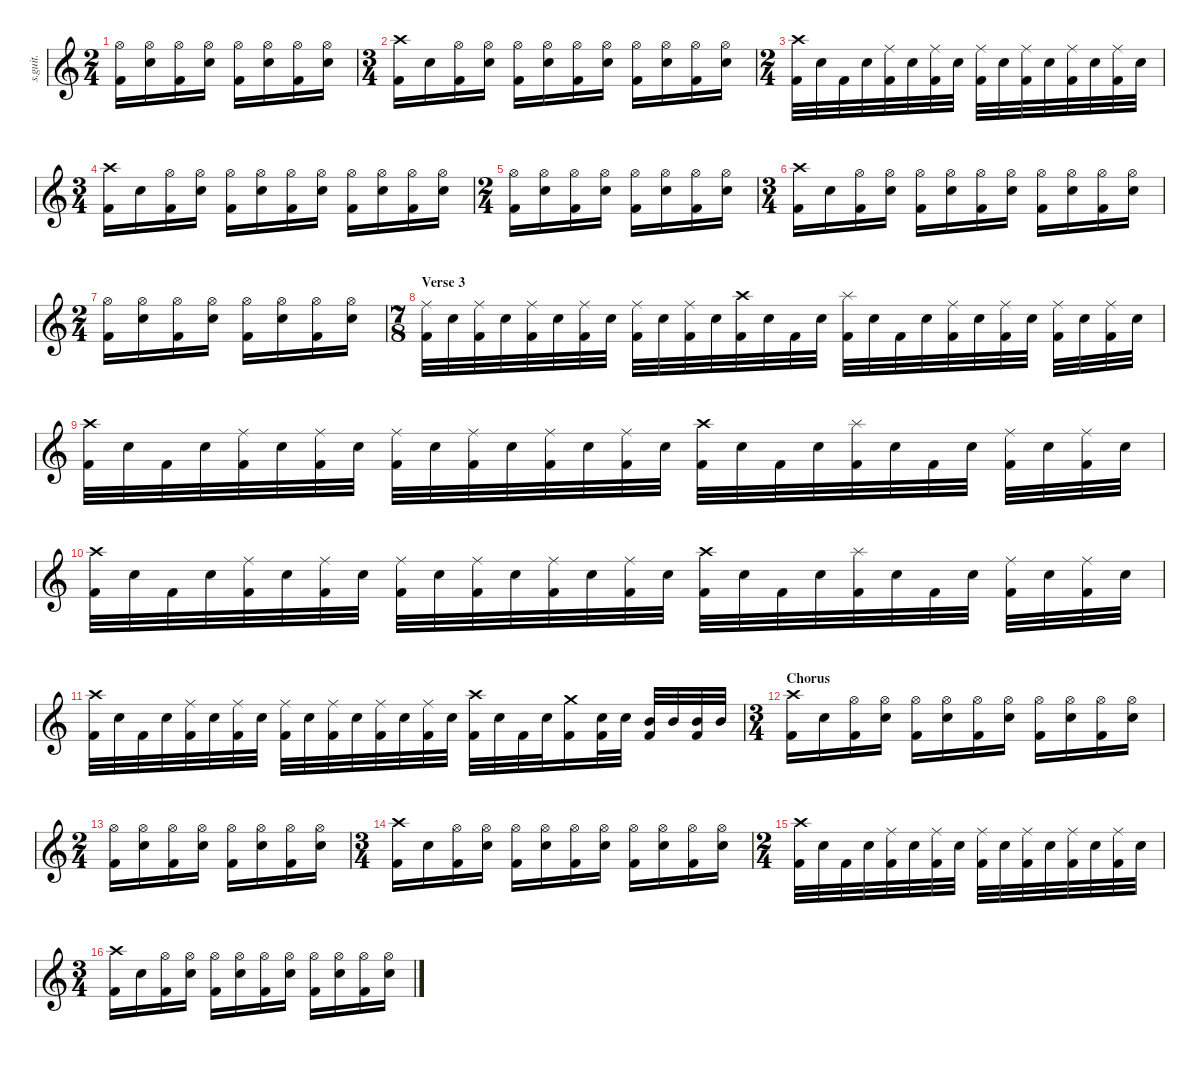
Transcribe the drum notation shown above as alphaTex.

\defaultSystemsLayout 4
\hideDynamics
\bracketExtendMode nobrackets
\track ("Percussion" "s.guit.") {instrument percussion}
\staff {score}
\articulation defaults
\ts (2 4)
\beaming (8 2 2 2 2)
\tempo (120 hide)
\clef g2
\ks c
("Hi-Hat (open)" "Kick (hit) 2").16{lyrics (0 "") lyrics (1 "") lyrics (2 "") lyrics (3 "") lyrics (4 "") dy f} ("Hi-Hat (open)" "Snare (hit) 2").16{lyrics (0 "") lyrics (1 "") lyrics (2 "") lyrics (3 "") lyrics (4 "")} ("Hi-Hat (open)" "Kick (hit) 2").16{lyrics (0 "") lyrics (1 "") lyrics (2 "") lyrics (3 "") lyrics (4 "")} ("Hi-Hat (open)" "Snare (hit) 2").16{lyrics (0 "") lyrics (1 "") lyrics (2 "") lyrics (3 "") lyrics (4 "")} ("Hi-Hat (open)" "Kick (hit) 2").16{lyrics (0 "") lyrics (1 "") lyrics (2 "") lyrics (3 "") lyrics (4 "")} ("Hi-Hat (open)" "Snare (hit) 2").16{lyrics (0 "") lyrics (1 "") lyrics (2 "") lyrics (3 "") lyrics (4 "")} ("Hi-Hat (open)" "Kick (hit) 2").16{lyrics (0 "") lyrics (1 "") lyrics (2 "") lyrics (3 "") lyrics (4 "")} ("Hi-Hat (open)" "Snare (hit) 2").16{lyrics (0 "") lyrics (1 "") lyrics (2 "") lyrics (3 "") lyrics (4 "")} |
\ts (3 4)
\beaming (8 2 2 2 2)
("Kick (hit) 2" "Crash high (hit)").16{lyrics (0 "") lyrics (1 "") lyrics (2 "") lyrics (3 "") lyrics (4 "")} "Snare (hit) 2".16{lyrics (0 "") lyrics (1 "") lyrics (2 "") lyrics (3 "") lyrics (4 "")} ("Hi-Hat (open)" "Kick (hit) 2").16{lyrics (0 "") lyrics (1 "") lyrics (2 "") lyrics (3 "") lyrics (4 "")} ("Hi-Hat (open)" "Snare (hit) 2").16{lyrics (0 "") lyrics (1 "") lyrics (2 "") lyrics (3 "") lyrics (4 "")} ("Hi-Hat (open)" "Kick (hit) 2").16{lyrics (0 "") lyrics (1 "") lyrics (2 "") lyrics (3 "") lyrics (4 "")} ("Hi-Hat (open)" "Snare (hit) 2").16{lyrics (0 "") lyrics (1 "") lyrics (2 "") lyrics (3 "") lyrics (4 "")} ("Hi-Hat (open)" "Kick (hit) 2").16{lyrics (0 "") lyrics (1 "") lyrics (2 "") lyrics (3 "") lyrics (4 "")} ("Hi-Hat (open)" "Snare (hit) 2").16{lyrics (0 "") lyrics (1 "") lyrics (2 "") lyrics (3 "") lyrics (4 "")} ("Hi-Hat (open)" "Kick (hit) 2").16{lyrics (0 "") lyrics (1 "") lyrics (2 "") lyrics (3 "") lyrics (4 "")} ("Hi-Hat (open)" "Snare (hit) 2").16{lyrics (0 "") lyrics (1 "") lyrics (2 "") lyrics (3 "") lyrics (4 "")} ("Hi-Hat (open)" "Kick (hit) 2").16{lyrics (0 "") lyrics (1 "") lyrics (2 "") lyrics (3 "") lyrics (4 "")} ("Hi-Hat (open)" "Snare (hit) 2").16{lyrics (0 "") lyrics (1 "") lyrics (2 "") lyrics (3 "") lyrics (4 "")} |
\ts (2 4)
\beaming (8 2 2 2 2)
("Kick (hit) 2" "Crash high (hit)").32{lyrics (0 "") lyrics (1 "") lyrics (2 "") lyrics (3 "") lyrics (4 "")} "Snare (hit) 2".32{lyrics (0 "") lyrics (1 "") lyrics (2 "") lyrics (3 "") lyrics (4 "")} "Kick (hit) 2".32{lyrics (0 "") lyrics (1 "") lyrics (2 "") lyrics (3 "") lyrics (4 "")} "Snare (hit) 2".32{lyrics (0 "") lyrics (1 "") lyrics (2 "") lyrics (3 "") lyrics (4 "")} ("Ride (middle)" "Kick (hit) 2").32{lyrics (0 "") lyrics (1 "") lyrics (2 "") lyrics (3 "") lyrics (4 "")} "Snare (hit) 2".32{lyrics (0 "") lyrics (1 "") lyrics (2 "") lyrics (3 "") lyrics (4 "")} ("Ride (middle)" "Kick (hit) 2").32{lyrics (0 "") lyrics (1 "") lyrics (2 "") lyrics (3 "") lyrics (4 "")} "Snare (hit) 2".32{lyrics (0 "") lyrics (1 "") lyrics (2 "") lyrics (3 "") lyrics (4 "")} ("Ride (middle)" "Kick (hit) 2").32{lyrics (0 "") lyrics (1 "") lyrics (2 "") lyrics (3 "") lyrics (4 "")} "Snare (hit) 2".32{lyrics (0 "") lyrics (1 "") lyrics (2 "") lyrics (3 "") lyrics (4 "")} ("Ride (middle)" "Kick (hit) 2").32{lyrics (0 "") lyrics (1 "") lyrics (2 "") lyrics (3 "") lyrics (4 "")} "Snare (hit) 2".32{lyrics (0 "") lyrics (1 "") lyrics (2 "") lyrics (3 "") lyrics (4 "")} ("Ride (middle)" "Kick (hit) 2").32{lyrics (0 "") lyrics (1 "") lyrics (2 "") lyrics (3 "") lyrics (4 "")} "Snare (hit) 2".32{lyrics (0 "") lyrics (1 "") lyrics (2 "") lyrics (3 "") lyrics (4 "")} ("Ride (middle)" "Kick (hit) 2").32{lyrics (0 "") lyrics (1 "") lyrics (2 "") lyrics (3 "") lyrics (4 "")} "Snare (hit) 2".32{lyrics (0 "") lyrics (1 "") lyrics (2 "") lyrics (3 "") lyrics (4 "")} |
\ts (3 4)
\beaming (8 2 2 2 2)
("Kick (hit) 2" "Crash high (hit)").16{lyrics (0 "") lyrics (1 "") lyrics (2 "") lyrics (3 "") lyrics (4 "")} "Snare (hit) 2".16{lyrics (0 "") lyrics (1 "") lyrics (2 "") lyrics (3 "") lyrics (4 "")} ("Hi-Hat (open)" "Kick (hit) 2").16{lyrics (0 "") lyrics (1 "") lyrics (2 "") lyrics (3 "") lyrics (4 "")} ("Hi-Hat (open)" "Snare (hit) 2").16{lyrics (0 "") lyrics (1 "") lyrics (2 "") lyrics (3 "") lyrics (4 "")} ("Hi-Hat (open)" "Kick (hit) 2").16{lyrics (0 "") lyrics (1 "") lyrics (2 "") lyrics (3 "") lyrics (4 "")} ("Hi-Hat (open)" "Snare (hit) 2").16{lyrics (0 "") lyrics (1 "") lyrics (2 "") lyrics (3 "") lyrics (4 "")} ("Hi-Hat (open)" "Kick (hit) 2").16{lyrics (0 "") lyrics (1 "") lyrics (2 "") lyrics (3 "") lyrics (4 "")} ("Hi-Hat (open)" "Snare (hit) 2").16{lyrics (0 "") lyrics (1 "") lyrics (2 "") lyrics (3 "") lyrics (4 "")} ("Hi-Hat (open)" "Kick (hit) 2").16{lyrics (0 "") lyrics (1 "") lyrics (2 "") lyrics (3 "") lyrics (4 "")} ("Hi-Hat (open)" "Snare (hit) 2").16{lyrics (0 "") lyrics (1 "") lyrics (2 "") lyrics (3 "") lyrics (4 "")} ("Hi-Hat (open)" "Kick (hit) 2").16{lyrics (0 "") lyrics (1 "") lyrics (2 "") lyrics (3 "") lyrics (4 "")} ("Hi-Hat (open)" "Snare (hit) 2").16{lyrics (0 "") lyrics (1 "") lyrics (2 "") lyrics (3 "") lyrics (4 "")} |
\ts (2 4)
\beaming (8 2 2 2 2)
("Hi-Hat (open)" "Kick (hit) 2").16{lyrics (0 "") lyrics (1 "") lyrics (2 "") lyrics (3 "") lyrics (4 "")} ("Hi-Hat (open)" "Snare (hit) 2").16{lyrics (0 "") lyrics (1 "") lyrics (2 "") lyrics (3 "") lyrics (4 "")} ("Hi-Hat (open)" "Kick (hit) 2").16{lyrics (0 "") lyrics (1 "") lyrics (2 "") lyrics (3 "") lyrics (4 "")} ("Hi-Hat (open)" "Snare (hit) 2").16{lyrics (0 "") lyrics (1 "") lyrics (2 "") lyrics (3 "") lyrics (4 "")} ("Hi-Hat (open)" "Kick (hit) 2").16{lyrics (0 "") lyrics (1 "") lyrics (2 "") lyrics (3 "") lyrics (4 "")} ("Hi-Hat (open)" "Snare (hit) 2").16{lyrics (0 "") lyrics (1 "") lyrics (2 "") lyrics (3 "") lyrics (4 "")} ("Hi-Hat (open)" "Kick (hit) 2").16{lyrics (0 "") lyrics (1 "") lyrics (2 "") lyrics (3 "") lyrics (4 "")} ("Hi-Hat (open)" "Snare (hit) 2").16{lyrics (0 "") lyrics (1 "") lyrics (2 "") lyrics (3 "") lyrics (4 "")} |
\ts (3 4)
\beaming (8 2 2 2 2)
("Kick (hit) 2" "Crash high (hit)").16{lyrics (0 "") lyrics (1 "") lyrics (2 "") lyrics (3 "") lyrics (4 "")} "Snare (hit) 2".16{lyrics (0 "") lyrics (1 "") lyrics (2 "") lyrics (3 "") lyrics (4 "")} ("Hi-Hat (open)" "Kick (hit) 2").16{lyrics (0 "") lyrics (1 "") lyrics (2 "") lyrics (3 "") lyrics (4 "")} ("Hi-Hat (open)" "Snare (hit) 2").16{lyrics (0 "") lyrics (1 "") lyrics (2 "") lyrics (3 "") lyrics (4 "")} ("Hi-Hat (open)" "Kick (hit) 2").16{lyrics (0 "") lyrics (1 "") lyrics (2 "") lyrics (3 "") lyrics (4 "")} ("Hi-Hat (open)" "Snare (hit) 2").16{lyrics (0 "") lyrics (1 "") lyrics (2 "") lyrics (3 "") lyrics (4 "")} ("Hi-Hat (open)" "Kick (hit) 2").16{lyrics (0 "") lyrics (1 "") lyrics (2 "") lyrics (3 "") lyrics (4 "")} ("Hi-Hat (open)" "Snare (hit) 2").16{lyrics (0 "") lyrics (1 "") lyrics (2 "") lyrics (3 "") lyrics (4 "")} ("Hi-Hat (open)" "Kick (hit) 2").16{lyrics (0 "") lyrics (1 "") lyrics (2 "") lyrics (3 "") lyrics (4 "")} ("Hi-Hat (open)" "Snare (hit) 2").16{lyrics (0 "") lyrics (1 "") lyrics (2 "") lyrics (3 "") lyrics (4 "")} ("Hi-Hat (open)" "Kick (hit) 2").16{lyrics (0 "") lyrics (1 "") lyrics (2 "") lyrics (3 "") lyrics (4 "")} ("Hi-Hat (open)" "Snare (hit) 2").16{lyrics (0 "") lyrics (1 "") lyrics (2 "") lyrics (3 "") lyrics (4 "")} |
\ts (2 4)
\beaming (8 2 2 2 2)
("Hi-Hat (open)" "Kick (hit) 2").16{lyrics (0 "") lyrics (1 "") lyrics (2 "") lyrics (3 "") lyrics (4 "")} ("Hi-Hat (open)" "Snare (hit) 2").16{lyrics (0 "") lyrics (1 "") lyrics (2 "") lyrics (3 "") lyrics (4 "")} ("Hi-Hat (open)" "Kick (hit) 2").16{lyrics (0 "") lyrics (1 "") lyrics (2 "") lyrics (3 "") lyrics (4 "")} ("Hi-Hat (open)" "Snare (hit) 2").16{lyrics (0 "") lyrics (1 "") lyrics (2 "") lyrics (3 "") lyrics (4 "")} ("Hi-Hat (open)" "Kick (hit) 2").16{lyrics (0 "") lyrics (1 "") lyrics (2 "") lyrics (3 "") lyrics (4 "")} ("Hi-Hat (open)" "Snare (hit) 2").16{lyrics (0 "") lyrics (1 "") lyrics (2 "") lyrics (3 "") lyrics (4 "")} ("Hi-Hat (open)" "Kick (hit) 2").16{lyrics (0 "") lyrics (1 "") lyrics (2 "") lyrics (3 "") lyrics (4 "")} ("Hi-Hat (open)" "Snare (hit) 2").16{lyrics (0 "") lyrics (1 "") lyrics (2 "") lyrics (3 "") lyrics (4 "")} |
\ts (7 8)
\beaming (8 2 2 2 2)
\section ("" "Verse 3")
("Ride (middle)" "Kick (hit) 2").32{lyrics (0 "") lyrics (1 "") lyrics (2 "") lyrics (3 "") lyrics (4 "")} "Snare (hit) 2".32{lyrics (0 "") lyrics (1 "") lyrics (2 "") lyrics (3 "") lyrics (4 "")} ("Ride (middle)" "Kick (hit) 2").32{lyrics (0 "") lyrics (1 "") lyrics (2 "") lyrics (3 "") lyrics (4 "")} "Snare (hit) 2".32{lyrics (0 "") lyrics (1 "") lyrics (2 "") lyrics (3 "") lyrics (4 "")} ("Ride (middle)" "Kick (hit) 2").32{lyrics (0 "") lyrics (1 "") lyrics (2 "") lyrics (3 "") lyrics (4 "")} "Snare (hit) 2".32{lyrics (0 "") lyrics (1 "") lyrics (2 "") lyrics (3 "") lyrics (4 "")} ("Ride (middle)" "Kick (hit) 2").32{lyrics (0 "") lyrics (1 "") lyrics (2 "") lyrics (3 "") lyrics (4 "")} "Snare (hit) 2".32{lyrics (0 "") lyrics (1 "") lyrics (2 "") lyrics (3 "") lyrics (4 "")} ("Ride (middle)" "Kick (hit) 2").32{lyrics (0 "") lyrics (1 "") lyrics (2 "") lyrics (3 "") lyrics (4 "")} "Snare (hit) 2".32{lyrics (0 "") lyrics (1 "") lyrics (2 "") lyrics (3 "") lyrics (4 "")} ("Ride (middle)" "Kick (hit) 2").32{lyrics (0 "") lyrics (1 "") lyrics (2 "") lyrics (3 "") lyrics (4 "")} "Snare (hit) 2".32{lyrics (0 "") lyrics (1 "") lyrics (2 "") lyrics (3 "") lyrics (4 "")} ("Kick (hit) 2" "Crash high (hit)").32{lyrics (0 "") lyrics (1 "") lyrics (2 "") lyrics (3 "") lyrics (4 "")} "Snare (hit) 2".32{lyrics (0 "") lyrics (1 "") lyrics (2 "") lyrics (3 "") lyrics (4 "")} "Kick (hit) 2".32{lyrics (0 "") lyrics (1 "") lyrics (2 "") lyrics (3 "") lyrics (4 "")} "Snare (hit) 2".32{lyrics (0 "") lyrics (1 "") lyrics (2 "") lyrics (3 "") lyrics (4 "")} ("Kick (hit) 2" "Splash (hit)").32{lyrics (0 "") lyrics (1 "") lyrics (2 "") lyrics (3 "") lyrics (4 "")} "Snare (hit) 2".32{lyrics (0 "") lyrics (1 "") lyrics (2 "") lyrics (3 "") lyrics (4 "")} "Kick (hit) 2".32{lyrics (0 "") lyrics (1 "") lyrics (2 "") lyrics (3 "") lyrics (4 "")} "Snare (hit) 2".32{lyrics (0 "") lyrics (1 "") lyrics (2 "") lyrics (3 "") lyrics (4 "")} ("Ride (middle)" "Kick (hit) 2").32{lyrics (0 "") lyrics (1 "") lyrics (2 "") lyrics (3 "") lyrics (4 "")} "Snare (hit) 2".32{lyrics (0 "") lyrics (1 "") lyrics (2 "") lyrics (3 "") lyrics (4 "")} ("Kick (hit) 2" "Ride (middle)").32{lyrics (0 "") lyrics (1 "") lyrics (2 "") lyrics (3 "") lyrics (4 "")} "Snare (hit) 2".32{lyrics (0 "") lyrics (1 "") lyrics (2 "") lyrics (3 "") lyrics (4 "")} ("Ride (middle)" "Kick (hit) 2").32{lyrics (0 "") lyrics (1 "") lyrics (2 "") lyrics (3 "") lyrics (4 "")} "Snare (hit) 2".32{lyrics (0 "") lyrics (1 "") lyrics (2 "") lyrics (3 "") lyrics (4 "")} ("Kick (hit) 2" "Ride (middle)").32{lyrics (0 "") lyrics (1 "") lyrics (2 "") lyrics (3 "") lyrics (4 "")} "Snare (hit) 2".32{lyrics (0 "") lyrics (1 "") lyrics (2 "") lyrics (3 "") lyrics (4 "")} |
("Kick (hit) 2" "Crash high (hit)").32{lyrics (0 "") lyrics (1 "") lyrics (2 "") lyrics (3 "") lyrics (4 "")} "Snare (hit) 2".32{lyrics (0 "") lyrics (1 "") lyrics (2 "") lyrics (3 "") lyrics (4 "")} "Kick (hit) 2".32{lyrics (0 "") lyrics (1 "") lyrics (2 "") lyrics (3 "") lyrics (4 "")} "Snare (hit) 2".32{lyrics (0 "") lyrics (1 "") lyrics (2 "") lyrics (3 "") lyrics (4 "")} ("Ride (middle)" "Kick (hit) 2").32{lyrics (0 "") lyrics (1 "") lyrics (2 "") lyrics (3 "") lyrics (4 "")} "Snare (hit) 2".32{lyrics (0 "") lyrics (1 "") lyrics (2 "") lyrics (3 "") lyrics (4 "")} ("Ride (middle)" "Kick (hit) 2").32{lyrics (0 "") lyrics (1 "") lyrics (2 "") lyrics (3 "") lyrics (4 "")} "Snare (hit) 2".32{lyrics (0 "") lyrics (1 "") lyrics (2 "") lyrics (3 "") lyrics (4 "")} ("Ride (middle)" "Kick (hit) 2").32{lyrics (0 "") lyrics (1 "") lyrics (2 "") lyrics (3 "") lyrics (4 "")} "Snare (hit) 2".32{lyrics (0 "") lyrics (1 "") lyrics (2 "") lyrics (3 "") lyrics (4 "")} ("Ride (middle)" "Kick (hit) 2").32{lyrics (0 "") lyrics (1 "") lyrics (2 "") lyrics (3 "") lyrics (4 "")} "Snare (hit) 2".32{lyrics (0 "") lyrics (1 "") lyrics (2 "") lyrics (3 "") lyrics (4 "")} ("Ride (middle)" "Kick (hit) 2").32{lyrics (0 "") lyrics (1 "") lyrics (2 "") lyrics (3 "") lyrics (4 "")} "Snare (hit) 2".32{lyrics (0 "") lyrics (1 "") lyrics (2 "") lyrics (3 "") lyrics (4 "")} ("Ride (middle)" "Kick (hit) 2").32{lyrics (0 "") lyrics (1 "") lyrics (2 "") lyrics (3 "") lyrics (4 "")} "Snare (hit) 2".32{lyrics (0 "") lyrics (1 "") lyrics (2 "") lyrics (3 "") lyrics (4 "")} ("Kick (hit) 2" "Crash high (hit)").32{lyrics (0 "") lyrics (1 "") lyrics (2 "") lyrics (3 "") lyrics (4 "")} "Snare (hit) 2".32{lyrics (0 "") lyrics (1 "") lyrics (2 "") lyrics (3 "") lyrics (4 "")} "Kick (hit) 2".32{lyrics (0 "") lyrics (1 "") lyrics (2 "") lyrics (3 "") lyrics (4 "")} "Snare (hit) 2".32{lyrics (0 "") lyrics (1 "") lyrics (2 "") lyrics (3 "") lyrics (4 "")} ("Kick (hit) 2" "Splash (hit)").32{lyrics (0 "") lyrics (1 "") lyrics (2 "") lyrics (3 "") lyrics (4 "")} "Snare (hit) 2".32{lyrics (0 "") lyrics (1 "") lyrics (2 "") lyrics (3 "") lyrics (4 "")} "Kick (hit) 2".32{lyrics (0 "") lyrics (1 "") lyrics (2 "") lyrics (3 "") lyrics (4 "")} "Snare (hit) 2".32{lyrics (0 "") lyrics (1 "") lyrics (2 "") lyrics (3 "") lyrics (4 "")} ("Ride (middle)" "Kick (hit) 2").32{lyrics (0 "") lyrics (1 "") lyrics (2 "") lyrics (3 "") lyrics (4 "")} "Snare (hit) 2".32{lyrics (0 "") lyrics (1 "") lyrics (2 "") lyrics (3 "") lyrics (4 "")} ("Kick (hit) 2" "Ride (middle)").32{lyrics (0 "") lyrics (1 "") lyrics (2 "") lyrics (3 "") lyrics (4 "")} "Snare (hit) 2".32{lyrics (0 "") lyrics (1 "") lyrics (2 "") lyrics (3 "") lyrics (4 "")} |
("Kick (hit) 2" "Crash high (hit)").32{lyrics (0 "") lyrics (1 "") lyrics (2 "") lyrics (3 "") lyrics (4 "")} "Snare (hit) 2".32{lyrics (0 "") lyrics (1 "") lyrics (2 "") lyrics (3 "") lyrics (4 "")} "Kick (hit) 2".32{lyrics (0 "") lyrics (1 "") lyrics (2 "") lyrics (3 "") lyrics (4 "")} "Snare (hit) 2".32{lyrics (0 "") lyrics (1 "") lyrics (2 "") lyrics (3 "") lyrics (4 "")} ("Ride (middle)" "Kick (hit) 2").32{lyrics (0 "") lyrics (1 "") lyrics (2 "") lyrics (3 "") lyrics (4 "")} "Snare (hit) 2".32{lyrics (0 "") lyrics (1 "") lyrics (2 "") lyrics (3 "") lyrics (4 "")} ("Ride (middle)" "Kick (hit) 2").32{lyrics (0 "") lyrics (1 "") lyrics (2 "") lyrics (3 "") lyrics (4 "")} "Snare (hit) 2".32{lyrics (0 "") lyrics (1 "") lyrics (2 "") lyrics (3 "") lyrics (4 "")} ("Ride (middle)" "Kick (hit) 2").32{lyrics (0 "") lyrics (1 "") lyrics (2 "") lyrics (3 "") lyrics (4 "")} "Snare (hit) 2".32{lyrics (0 "") lyrics (1 "") lyrics (2 "") lyrics (3 "") lyrics (4 "")} ("Ride (middle)" "Kick (hit) 2").32{lyrics (0 "") lyrics (1 "") lyrics (2 "") lyrics (3 "") lyrics (4 "")} "Snare (hit) 2".32{lyrics (0 "") lyrics (1 "") lyrics (2 "") lyrics (3 "") lyrics (4 "")} ("Ride (middle)" "Kick (hit) 2").32{lyrics (0 "") lyrics (1 "") lyrics (2 "") lyrics (3 "") lyrics (4 "")} "Snare (hit) 2".32{lyrics (0 "") lyrics (1 "") lyrics (2 "") lyrics (3 "") lyrics (4 "")} ("Ride (middle)" "Kick (hit) 2").32{lyrics (0 "") lyrics (1 "") lyrics (2 "") lyrics (3 "") lyrics (4 "")} "Snare (hit) 2".32{lyrics (0 "") lyrics (1 "") lyrics (2 "") lyrics (3 "") lyrics (4 "")} ("Kick (hit) 2" "Crash high (hit)").32{lyrics (0 "") lyrics (1 "") lyrics (2 "") lyrics (3 "") lyrics (4 "")} "Snare (hit) 2".32{lyrics (0 "") lyrics (1 "") lyrics (2 "") lyrics (3 "") lyrics (4 "")} "Kick (hit) 2".32{lyrics (0 "") lyrics (1 "") lyrics (2 "") lyrics (3 "") lyrics (4 "")} "Snare (hit) 2".32{lyrics (0 "") lyrics (1 "") lyrics (2 "") lyrics (3 "") lyrics (4 "")} ("Kick (hit) 2" "Splash (hit)").32{lyrics (0 "") lyrics (1 "") lyrics (2 "") lyrics (3 "") lyrics (4 "")} "Snare (hit) 2".32{lyrics (0 "") lyrics (1 "") lyrics (2 "") lyrics (3 "") lyrics (4 "")} "Kick (hit) 2".32{lyrics (0 "") lyrics (1 "") lyrics (2 "") lyrics (3 "") lyrics (4 "")} "Snare (hit) 2".32{lyrics (0 "") lyrics (1 "") lyrics (2 "") lyrics (3 "") lyrics (4 "")} ("Ride (middle)" "Kick (hit) 2").32{lyrics (0 "") lyrics (1 "") lyrics (2 "") lyrics (3 "") lyrics (4 "")} "Snare (hit) 2".32{lyrics (0 "") lyrics (1 "") lyrics (2 "") lyrics (3 "") lyrics (4 "")} ("Kick (hit) 2" "Ride (middle)").32{lyrics (0 "") lyrics (1 "") lyrics (2 "") lyrics (3 "") lyrics (4 "")} "Snare (hit) 2".32{lyrics (0 "") lyrics (1 "") lyrics (2 "") lyrics (3 "") lyrics (4 "")} |
("Kick (hit) 2" "Crash high (hit)").32{lyrics (0 "") lyrics (1 "") lyrics (2 "") lyrics (3 "") lyrics (4 "")} "Snare (hit) 2".32{lyrics (0 "") lyrics (1 "") lyrics (2 "") lyrics (3 "") lyrics (4 "")} "Kick (hit) 2".32{lyrics (0 "") lyrics (1 "") lyrics (2 "") lyrics (3 "") lyrics (4 "")} "Snare (hit) 2".32{lyrics (0 "") lyrics (1 "") lyrics (2 "") lyrics (3 "") lyrics (4 "")} ("Ride (middle)" "Kick (hit) 2").32{lyrics (0 "") lyrics (1 "") lyrics (2 "") lyrics (3 "") lyrics (4 "")} "Snare (hit) 2".32{lyrics (0 "") lyrics (1 "") lyrics (2 "") lyrics (3 "") lyrics (4 "")} ("Ride (middle)" "Kick (hit) 2").32{lyrics (0 "") lyrics (1 "") lyrics (2 "") lyrics (3 "") lyrics (4 "")} "Snare (hit) 2".32{lyrics (0 "") lyrics (1 "") lyrics (2 "") lyrics (3 "") lyrics (4 "")} ("Ride (middle)" "Kick (hit) 2").32{lyrics (0 "") lyrics (1 "") lyrics (2 "") lyrics (3 "") lyrics (4 "")} "Snare (hit) 2".32{lyrics (0 "") lyrics (1 "") lyrics (2 "") lyrics (3 "") lyrics (4 "")} ("Ride (middle)" "Kick (hit) 2").32{lyrics (0 "") lyrics (1 "") lyrics (2 "") lyrics (3 "") lyrics (4 "")} "Snare (hit) 2".32{lyrics (0 "") lyrics (1 "") lyrics (2 "") lyrics (3 "") lyrics (4 "")} ("Ride (middle)" "Kick (hit) 2").32{lyrics (0 "") lyrics (1 "") lyrics (2 "") lyrics (3 "") lyrics (4 "")} "Snare (hit) 2".32{lyrics (0 "") lyrics (1 "") lyrics (2 "") lyrics (3 "") lyrics (4 "")} ("Ride (middle)" "Kick (hit) 2").32{lyrics (0 "") lyrics (1 "") lyrics (2 "") lyrics (3 "") lyrics (4 "")} "Snare (hit) 2".32{lyrics (0 "") lyrics (1 "") lyrics (2 "") lyrics (3 "") lyrics (4 "")} ("Kick (hit) 2" "Crash high (hit)").32{lyrics (0 "") lyrics (1 "") lyrics (2 "") lyrics (3 "") lyrics (4 "")} "Snare (hit) 2".32{lyrics (0 "") lyrics (1 "") lyrics (2 "") lyrics (3 "") lyrics (4 "")} "Kick (hit) 2".32{lyrics (0 "") lyrics (1 "") lyrics (2 "") lyrics (3 "") lyrics (4 "")} "Snare (hit) 2".32{lyrics (0 "") lyrics (1 "") lyrics (2 "") lyrics (3 "") lyrics (4 "")} ("Crash medium (hit)" "Kick (hit) 2").16{lyrics (0 "") lyrics (1 "") lyrics (2 "") lyrics (3 "") lyrics (4 "")} ("Snare (hit) 2" "Kick (hit) 2").32{lyrics (0 "") lyrics (1 "") lyrics (2 "") lyrics (3 "") lyrics (4 "")} "Snare (hit) 2".32{lyrics (0 "") lyrics (1 "") lyrics (2 "") lyrics (3 "") lyrics (4 "")} ("Mid Tom (hit)" "Kick (hit) 2").32{lyrics (0 "") lyrics (1 "") lyrics (2 "") lyrics (3 "") lyrics (4 "")} "Mid Tom (hit)".32{lyrics (0 "") lyrics (1 "") lyrics (2 "") lyrics (3 "") lyrics (4 "")} ("Mid Tom (hit)" "Kick (hit) 2").32{lyrics (0 "") lyrics (1 "") lyrics (2 "") lyrics (3 "") lyrics (4 "")} "Mid Tom (hit)".32{lyrics (0 "") lyrics (1 "") lyrics (2 "") lyrics (3 "") lyrics (4 "")} |
\ts (3 4)
\beaming (8 2 2 2 2)
\section ("" "Chorus")
("Kick (hit) 2" "Crash high (hit)").16{lyrics (0 "") lyrics (1 "") lyrics (2 "") lyrics (3 "") lyrics (4 "")} "Snare (hit) 2".16{lyrics (0 "") lyrics (1 "") lyrics (2 "") lyrics (3 "") lyrics (4 "")} ("Hi-Hat (open)" "Kick (hit) 2").16{lyrics (0 "") lyrics (1 "") lyrics (2 "") lyrics (3 "") lyrics (4 "")} ("Hi-Hat (open)" "Snare (hit) 2").16{lyrics (0 "") lyrics (1 "") lyrics (2 "") lyrics (3 "") lyrics (4 "")} ("Hi-Hat (open)" "Kick (hit) 2").16{lyrics (0 "") lyrics (1 "") lyrics (2 "") lyrics (3 "") lyrics (4 "")} ("Hi-Hat (open)" "Snare (hit) 2").16{lyrics (0 "") lyrics (1 "") lyrics (2 "") lyrics (3 "") lyrics (4 "")} ("Hi-Hat (open)" "Kick (hit) 2").16{lyrics (0 "") lyrics (1 "") lyrics (2 "") lyrics (3 "") lyrics (4 "")} ("Hi-Hat (open)" "Snare (hit) 2").16{lyrics (0 "") lyrics (1 "") lyrics (2 "") lyrics (3 "") lyrics (4 "")} ("Hi-Hat (open)" "Kick (hit) 2").16{lyrics (0 "") lyrics (1 "") lyrics (2 "") lyrics (3 "") lyrics (4 "")} ("Hi-Hat (open)" "Snare (hit) 2").16{lyrics (0 "") lyrics (1 "") lyrics (2 "") lyrics (3 "") lyrics (4 "")} ("Hi-Hat (open)" "Kick (hit) 2").16{lyrics (0 "") lyrics (1 "") lyrics (2 "") lyrics (3 "") lyrics (4 "")} ("Hi-Hat (open)" "Snare (hit) 2").16{lyrics (0 "") lyrics (1 "") lyrics (2 "") lyrics (3 "") lyrics (4 "")} |
\ts (2 4)
\beaming (8 2 2 2 2)
("Hi-Hat (open)" "Kick (hit) 2").16{lyrics (0 "") lyrics (1 "") lyrics (2 "") lyrics (3 "") lyrics (4 "")} ("Hi-Hat (open)" "Snare (hit) 2").16{lyrics (0 "") lyrics (1 "") lyrics (2 "") lyrics (3 "") lyrics (4 "")} ("Hi-Hat (open)" "Kick (hit) 2").16{lyrics (0 "") lyrics (1 "") lyrics (2 "") lyrics (3 "") lyrics (4 "")} ("Hi-Hat (open)" "Snare (hit) 2").16{lyrics (0 "") lyrics (1 "") lyrics (2 "") lyrics (3 "") lyrics (4 "")} ("Hi-Hat (open)" "Kick (hit) 2").16{lyrics (0 "") lyrics (1 "") lyrics (2 "") lyrics (3 "") lyrics (4 "")} ("Hi-Hat (open)" "Snare (hit) 2").16{lyrics (0 "") lyrics (1 "") lyrics (2 "") lyrics (3 "") lyrics (4 "")} ("Hi-Hat (open)" "Kick (hit) 2").16{lyrics (0 "") lyrics (1 "") lyrics (2 "") lyrics (3 "") lyrics (4 "")} ("Hi-Hat (open)" "Snare (hit) 2").16{lyrics (0 "") lyrics (1 "") lyrics (2 "") lyrics (3 "") lyrics (4 "")} |
\ts (3 4)
\beaming (8 2 2 2 2)
("Kick (hit) 2" "Crash high (hit)").16{lyrics (0 "") lyrics (1 "") lyrics (2 "") lyrics (3 "") lyrics (4 "")} "Snare (hit) 2".16{lyrics (0 "") lyrics (1 "") lyrics (2 "") lyrics (3 "") lyrics (4 "")} ("Hi-Hat (open)" "Kick (hit) 2").16{lyrics (0 "") lyrics (1 "") lyrics (2 "") lyrics (3 "") lyrics (4 "")} ("Hi-Hat (open)" "Snare (hit) 2").16{lyrics (0 "") lyrics (1 "") lyrics (2 "") lyrics (3 "") lyrics (4 "")} ("Hi-Hat (open)" "Kick (hit) 2").16{lyrics (0 "") lyrics (1 "") lyrics (2 "") lyrics (3 "") lyrics (4 "")} ("Hi-Hat (open)" "Snare (hit) 2").16{lyrics (0 "") lyrics (1 "") lyrics (2 "") lyrics (3 "") lyrics (4 "")} ("Hi-Hat (open)" "Kick (hit) 2").16{lyrics (0 "") lyrics (1 "") lyrics (2 "") lyrics (3 "") lyrics (4 "")} ("Hi-Hat (open)" "Snare (hit) 2").16{lyrics (0 "") lyrics (1 "") lyrics (2 "") lyrics (3 "") lyrics (4 "")} ("Hi-Hat (open)" "Kick (hit) 2").16{lyrics (0 "") lyrics (1 "") lyrics (2 "") lyrics (3 "") lyrics (4 "")} ("Hi-Hat (open)" "Snare (hit) 2").16{lyrics (0 "") lyrics (1 "") lyrics (2 "") lyrics (3 "") lyrics (4 "")} ("Hi-Hat (open)" "Kick (hit) 2").16{lyrics (0 "") lyrics (1 "") lyrics (2 "") lyrics (3 "") lyrics (4 "")} ("Hi-Hat (open)" "Snare (hit) 2").16{lyrics (0 "") lyrics (1 "") lyrics (2 "") lyrics (3 "") lyrics (4 "")} |
\ts (2 4)
\beaming (8 2 2 2 2)
("Kick (hit) 2" "Crash high (hit)").32{lyrics (0 "") lyrics (1 "") lyrics (2 "") lyrics (3 "") lyrics (4 "")} "Snare (hit) 2".32{lyrics (0 "") lyrics (1 "") lyrics (2 "") lyrics (3 "") lyrics (4 "")} "Kick (hit) 2".32{lyrics (0 "") lyrics (1 "") lyrics (2 "") lyrics (3 "") lyrics (4 "")} "Snare (hit) 2".32{lyrics (0 "") lyrics (1 "") lyrics (2 "") lyrics (3 "") lyrics (4 "")} ("Ride (middle)" "Kick (hit) 2").32{lyrics (0 "") lyrics (1 "") lyrics (2 "") lyrics (3 "") lyrics (4 "")} "Snare (hit) 2".32{lyrics (0 "") lyrics (1 "") lyrics (2 "") lyrics (3 "") lyrics (4 "")} ("Ride (middle)" "Kick (hit) 2").32{lyrics (0 "") lyrics (1 "") lyrics (2 "") lyrics (3 "") lyrics (4 "")} "Snare (hit) 2".32{lyrics (0 "") lyrics (1 "") lyrics (2 "") lyrics (3 "") lyrics (4 "")} ("Ride (middle)" "Kick (hit) 2").32{lyrics (0 "") lyrics (1 "") lyrics (2 "") lyrics (3 "") lyrics (4 "")} "Snare (hit) 2".32{lyrics (0 "") lyrics (1 "") lyrics (2 "") lyrics (3 "") lyrics (4 "")} ("Ride (middle)" "Kick (hit) 2").32{lyrics (0 "") lyrics (1 "") lyrics (2 "") lyrics (3 "") lyrics (4 "")} "Snare (hit) 2".32{lyrics (0 "") lyrics (1 "") lyrics (2 "") lyrics (3 "") lyrics (4 "")} ("Ride (middle)" "Kick (hit) 2").32{lyrics (0 "") lyrics (1 "") lyrics (2 "") lyrics (3 "") lyrics (4 "")} "Snare (hit) 2".32{lyrics (0 "") lyrics (1 "") lyrics (2 "") lyrics (3 "") lyrics (4 "")} ("Ride (middle)" "Kick (hit) 2").32{lyrics (0 "") lyrics (1 "") lyrics (2 "") lyrics (3 "") lyrics (4 "")} "Snare (hit) 2".32{lyrics (0 "") lyrics (1 "") lyrics (2 "") lyrics (3 "") lyrics (4 "")} |
\ts (3 4)
\beaming (8 2 2 2 2)
("Kick (hit) 2" "Crash high (hit)").16{lyrics (0 "") lyrics (1 "") lyrics (2 "") lyrics (3 "") lyrics (4 "")} "Snare (hit) 2".16{lyrics (0 "") lyrics (1 "") lyrics (2 "") lyrics (3 "") lyrics (4 "")} ("Hi-Hat (open)" "Kick (hit) 2").16{lyrics (0 "") lyrics (1 "") lyrics (2 "") lyrics (3 "") lyrics (4 "")} ("Hi-Hat (open)" "Snare (hit) 2").16{lyrics (0 "") lyrics (1 "") lyrics (2 "") lyrics (3 "") lyrics (4 "")} ("Hi-Hat (open)" "Kick (hit) 2").16{lyrics (0 "") lyrics (1 "") lyrics (2 "") lyrics (3 "") lyrics (4 "")} ("Hi-Hat (open)" "Snare (hit) 2").16{lyrics (0 "") lyrics (1 "") lyrics (2 "") lyrics (3 "") lyrics (4 "")} ("Hi-Hat (open)" "Kick (hit) 2").16{lyrics (0 "") lyrics (1 "") lyrics (2 "") lyrics (3 "") lyrics (4 "")} ("Hi-Hat (open)" "Snare (hit) 2").16{lyrics (0 "") lyrics (1 "") lyrics (2 "") lyrics (3 "") lyrics (4 "")} ("Hi-Hat (open)" "Kick (hit) 2").16{lyrics (0 "") lyrics (1 "") lyrics (2 "") lyrics (3 "") lyrics (4 "")} ("Hi-Hat (open)" "Snare (hit) 2").16{lyrics (0 "") lyrics (1 "") lyrics (2 "") lyrics (3 "") lyrics (4 "")} ("Hi-Hat (open)" "Kick (hit) 2").16{lyrics (0 "") lyrics (1 "") lyrics (2 "") lyrics (3 "") lyrics (4 "")} ("Hi-Hat (open)" "Snare (hit) 2").16{lyrics (0 "") lyrics (1 "") lyrics (2 "") lyrics (3 "") lyrics (4 "")}
